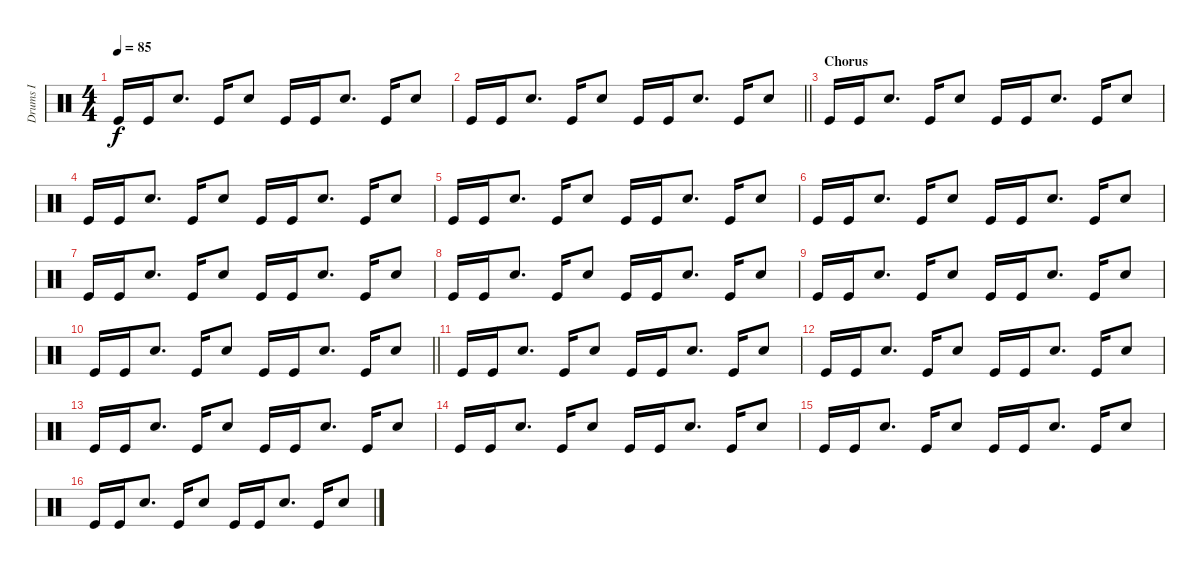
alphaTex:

\track ("Drums I" "Drums I") {instrument percussion}
\staff {score}
\articulation defaults
\ts (4 4)
\tempo 85
\clef neutral
\ks c "Kick (hit)".16{dy f} "Kick (hit)".16 "Electric Snare (hit)".8{d} "Kick (hit)".16 "Electric Snare (hit)".8 "Kick (hit)".16 "Kick (hit)".16 "Electric Snare (hit)".8{d} "Kick (hit)".16 "Electric Snare (hit)".8
|
\barLineRight lightlight "Kick (hit)".16 "Kick (hit)".16 "Electric Snare (hit)".8{d} "Kick (hit)".16 "Electric Snare (hit)".8 "Kick (hit)".16 "Kick (hit)".16 "Electric Snare (hit)".8{d} "Kick (hit)".16 "Electric Snare (hit)".8
|
\section ("" "Chorus")
"Kick (hit)".16 "Kick (hit)".16 "Electric Snare (hit)".8{d} "Kick (hit)".16 "Electric Snare (hit)".8 "Kick (hit)".16 "Kick (hit)".16 "Electric Snare (hit)".8{d} "Kick (hit)".16 "Electric Snare (hit)".8 |
"Kick (hit)".16 "Kick (hit)".16 "Electric Snare (hit)".8{d} "Kick (hit)".16 "Electric Snare (hit)".8 "Kick (hit)".16 "Kick (hit)".16 "Electric Snare (hit)".8{d} "Kick (hit)".16 "Electric Snare (hit)".8 |
"Kick (hit)".16 "Kick (hit)".16 "Electric Snare (hit)".8{d} "Kick (hit)".16 "Electric Snare (hit)".8 "Kick (hit)".16 "Kick (hit)".16 "Electric Snare (hit)".8{d} "Kick (hit)".16 "Electric Snare (hit)".8 |
"Kick (hit)".16 "Kick (hit)".16 "Electric Snare (hit)".8{d} "Kick (hit)".16 "Electric Snare (hit)".8 "Kick (hit)".16 "Kick (hit)".16 "Electric Snare (hit)".8{d} "Kick (hit)".16 "Electric Snare (hit)".8 |
"Kick (hit)".16 "Kick (hit)".16 "Electric Snare (hit)".8{d} "Kick (hit)".16 "Electric Snare (hit)".8 "Kick (hit)".16 "Kick (hit)".16 "Electric Snare (hit)".8{d} "Kick (hit)".16 "Electric Snare (hit)".8 |
"Kick (hit)".16 "Kick (hit)".16 "Electric Snare (hit)".8{d} "Kick (hit)".16 "Electric Snare (hit)".8 "Kick (hit)".16 "Kick (hit)".16 "Electric Snare (hit)".8{d} "Kick (hit)".16 "Electric Snare (hit)".8 |
"Kick (hit)".16 "Kick (hit)".16 "Electric Snare (hit)".8{d} "Kick (hit)".16 "Electric Snare (hit)".8 "Kick (hit)".16 "Kick (hit)".16 "Electric Snare (hit)".8{d} "Kick (hit)".16 "Electric Snare (hit)".8 |
\barLineRight lightlight "Kick (hit)".16 "Kick (hit)".16 "Electric Snare (hit)".8{d} "Kick (hit)".16 "Electric Snare (hit)".8 "Kick (hit)".16 "Kick (hit)".16 "Electric Snare (hit)".8{d} "Kick (hit)".16 "Electric Snare (hit)".8
|
"Kick (hit)".16 "Kick (hit)".16 "Electric Snare (hit)".8{d} "Kick (hit)".16 "Electric Snare (hit)".8 "Kick (hit)".16 "Kick (hit)".16 "Electric Snare (hit)".8{d} "Kick (hit)".16 "Electric Snare (hit)".8 |
"Kick (hit)".16 "Kick (hit)".16 "Electric Snare (hit)".8{d} "Kick (hit)".16 "Electric Snare (hit)".8 "Kick (hit)".16 "Kick (hit)".16 "Electric Snare (hit)".8{d} "Kick (hit)".16 "Electric Snare (hit)".8 |
"Kick (hit)".16 "Kick (hit)".16 "Electric Snare (hit)".8{d} "Kick (hit)".16 "Electric Snare (hit)".8 "Kick (hit)".16 "Kick (hit)".16 "Electric Snare (hit)".8{d} "Kick (hit)".16 "Electric Snare (hit)".8 |
"Kick (hit)".16 "Kick (hit)".16 "Electric Snare (hit)".8{d} "Kick (hit)".16 "Electric Snare (hit)".8 "Kick (hit)".16 "Kick (hit)".16 "Electric Snare (hit)".8{d} "Kick (hit)".16 "Electric Snare (hit)".8 |
"Kick (hit)".16 "Kick (hit)".16 "Electric Snare (hit)".8{d} "Kick (hit)".16 "Electric Snare (hit)".8 "Kick (hit)".16 "Kick (hit)".16 "Electric Snare (hit)".8{d} "Kick (hit)".16 "Electric Snare (hit)".8 |
"Kick (hit)".16 "Kick (hit)".16 "Electric Snare (hit)".8{d} "Kick (hit)".16 "Electric Snare (hit)".8 "Kick (hit)".16 "Kick (hit)".16 "Electric Snare (hit)".8{d} "Kick (hit)".16 "Electric Snare (hit)".8
